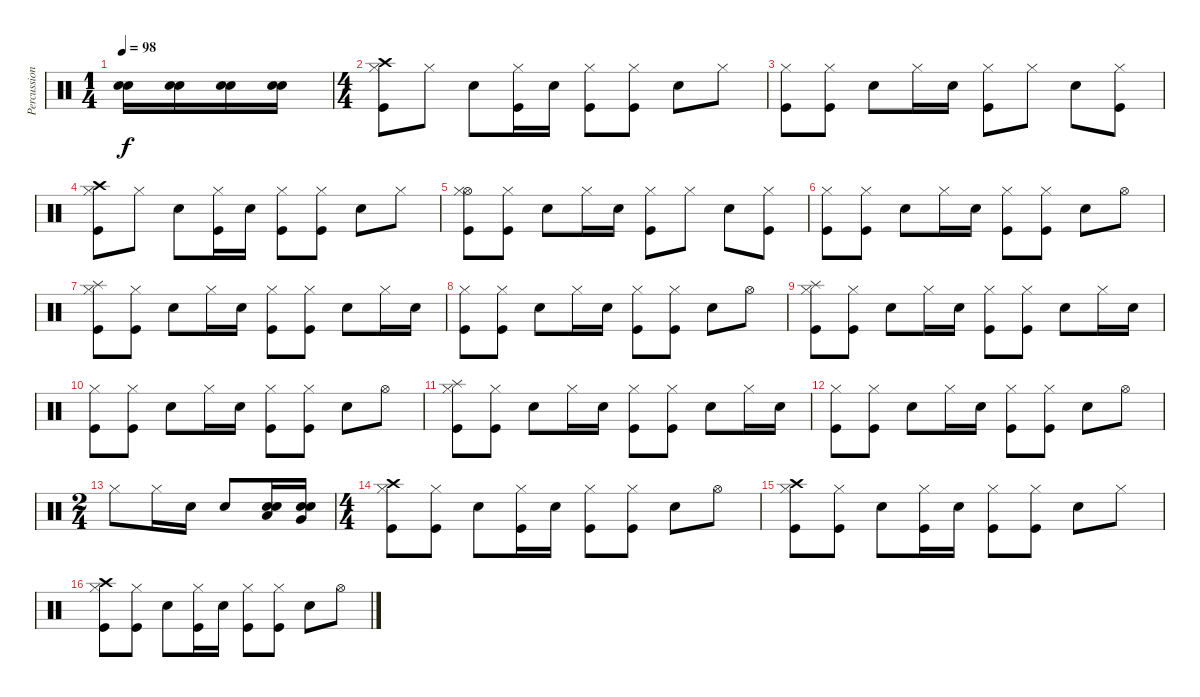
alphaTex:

\track ("Percussions" "Percussion") {instrument percussion}
\staff {score}
\articulation defaults
\ts (1 4)
\tempo 98
\clef neutral
\ks c
("Electric Snare (hit)" "Snare (hit) 2").16{dy f} ("Electric Snare (hit)" "Snare (hit) 2").16 ("Electric Snare (hit)" "Snare (hit) 2").16 ("Electric Snare (hit)" "Snare (hit) 2").16 |
\ts (4 4)
("Crash high (hit)" "Hi-Hat (closed)" "Kick (hit)").8 "Hi-Hat (closed)".8 "Electric Snare (hit)".8 ("Hi-Hat (closed)" "Kick (hit)").16 "Electric Snare (hit)".16 ("Hi-Hat (closed)" "Kick (hit)").8 ("Hi-Hat (closed)" "Kick (hit)").8 "Electric Snare (hit)".8 "Hi-Hat (closed)".8 |
("Hi-Hat (closed)" "Kick (hit)").8 ("Hi-Hat (closed)" "Kick (hit)").8 "Electric Snare (hit)".8 "Hi-Hat (closed)".16 "Electric Snare (hit)".16 ("Hi-Hat (closed)" "Kick (hit)").8 "Hi-Hat (closed)".8 "Electric Snare (hit)".8 ("Hi-Hat (closed)" "Kick (hit)").8 |
("Crash high (hit)" "Hi-Hat (closed)" "Kick (hit)").8 "Hi-Hat (closed)".8 "Electric Snare (hit)".8 ("Hi-Hat (closed)" "Kick (hit)").16 "Electric Snare (hit)".16 ("Hi-Hat (closed)" "Kick (hit)").8 ("Hi-Hat (closed)" "Kick (hit)").8 "Electric Snare (hit)".8 "Hi-Hat (closed)".8 |
("Hi-Hat (open)" "Hi-Hat (closed)" "Kick (hit)").8 ("Hi-Hat (closed)" "Kick (hit)").8 "Electric Snare (hit)".8 "Hi-Hat (closed)".16 "Electric Snare (hit)".16 ("Hi-Hat (closed)" "Kick (hit)").8 "Hi-Hat (closed)".8 "Electric Snare (hit)".8 ("Hi-Hat (closed)" "Kick (hit)").8 |
("Hi-Hat (closed)" "Kick (hit)").8 ("Hi-Hat (closed)" "Kick (hit)").8 "Electric Snare (hit)".8 "Hi-Hat (closed)".16 "Electric Snare (hit)".16 ("Hi-Hat (closed)" "Kick (hit)").8 ("Hi-Hat (closed)" "Kick (hit)").8 "Electric Snare (hit)".8 "Hi-Hat (open)".8 |
("Splash (hit)" "Hi-Hat (closed)" "Kick (hit)").8 ("Hi-Hat (closed)" "Kick (hit)").8 "Electric Snare (hit)".8 "Hi-Hat (closed)".16 "Electric Snare (hit)".16 ("Hi-Hat (closed)" "Kick (hit)").8 ("Hi-Hat (closed)" "Kick (hit)").8 "Electric Snare (hit)".8 "Hi-Hat (closed)".16 "Electric Snare (hit)".16 |
("Hi-Hat (closed)" "Kick (hit)").8 ("Hi-Hat (closed)" "Kick (hit)").8 "Electric Snare (hit)".8 "Hi-Hat (closed)".16 "Electric Snare (hit)".16 ("Hi-Hat (closed)" "Kick (hit)").8 ("Hi-Hat (closed)" "Kick (hit)").8 "Electric Snare (hit)".8 "Hi-Hat (open)".8 |
("Splash (hit)" "Hi-Hat (closed)" "Kick (hit)").8 ("Hi-Hat (closed)" "Kick (hit)").8 "Electric Snare (hit)".8 "Hi-Hat (closed)".16 "Electric Snare (hit)".16 ("Hi-Hat (closed)" "Kick (hit)").8 ("Hi-Hat (closed)" "Kick (hit)").8 "Electric Snare (hit)".8 "Hi-Hat (closed)".16 "Electric Snare (hit)".16 |
("Hi-Hat (closed)" "Kick (hit)").8 ("Hi-Hat (closed)" "Kick (hit)").8 "Electric Snare (hit)".8 "Hi-Hat (closed)".16 "Electric Snare (hit)".16 ("Hi-Hat (closed)" "Kick (hit)").8 ("Hi-Hat (closed)" "Kick (hit)").8 "Electric Snare (hit)".8 "Hi-Hat (open)".8 |
("Splash (hit)" "Hi-Hat (closed)" "Kick (hit)").8 ("Hi-Hat (closed)" "Kick (hit)").8 "Electric Snare (hit)".8 "Hi-Hat (closed)".16 "Electric Snare (hit)".16 ("Hi-Hat (closed)" "Kick (hit)").8 ("Hi-Hat (closed)" "Kick (hit)").8 "Electric Snare (hit)".8 "Hi-Hat (closed)".16 "Electric Snare (hit)".16 |
("Hi-Hat (closed)" "Kick (hit)").8 ("Hi-Hat (closed)" "Kick (hit)").8 "Electric Snare (hit)".8 "Hi-Hat (closed)".16 "Electric Snare (hit)".16 ("Hi-Hat (closed)" "Kick (hit)").8 ("Hi-Hat (closed)" "Kick (hit)").8 "Electric Snare (hit)".8 "Hi-Hat (open)".8 |
\ts (2 4)
"Hi-Hat (closed)".8 "Hi-Hat (closed)".16 "Snare (hit) 2".16 "Electric Snare (hit)".8 ("Low Tom (hit)" "Electric Snare (hit)" "Snare (hit) 2").16 ("Very Low Tom (hit)" "Electric Snare (hit)" "Snare (hit) 2").16 |
\ts (4 4)
("Crash high (hit)" "Hi-Hat (closed)" "Kick (hit)").8 ("Hi-Hat (closed)" "Kick (hit)").8 "Electric Snare (hit)".8 ("Hi-Hat (closed)" "Kick (hit)").16 "Electric Snare (hit)".16 ("Hi-Hat (closed)" "Kick (hit)").8 ("Hi-Hat (closed)" "Kick (hit)").8 "Electric Snare (hit)".8 "Hi-Hat (open)".8 |
("Crash high (hit)" "Hi-Hat (closed)" "Kick (hit)").8 ("Hi-Hat (closed)" "Kick (hit)").8 "Electric Snare (hit)".8 ("Hi-Hat (closed)" "Kick (hit)").16 "Electric Snare (hit)".16 ("Hi-Hat (closed)" "Kick (hit)").8 ("Hi-Hat (closed)" "Kick (hit)").8 "Electric Snare (hit)".8 "Hi-Hat (closed)".8 |
("Crash high (hit)" "Hi-Hat (closed)" "Kick (hit)").8 ("Hi-Hat (closed)" "Kick (hit)").8 "Electric Snare (hit)".8 ("Hi-Hat (closed)" "Kick (hit)").16 "Electric Snare (hit)".16 ("Hi-Hat (closed)" "Kick (hit)").8 ("Hi-Hat (closed)" "Kick (hit)").8 "Electric Snare (hit)".8 "Hi-Hat (open)".8
